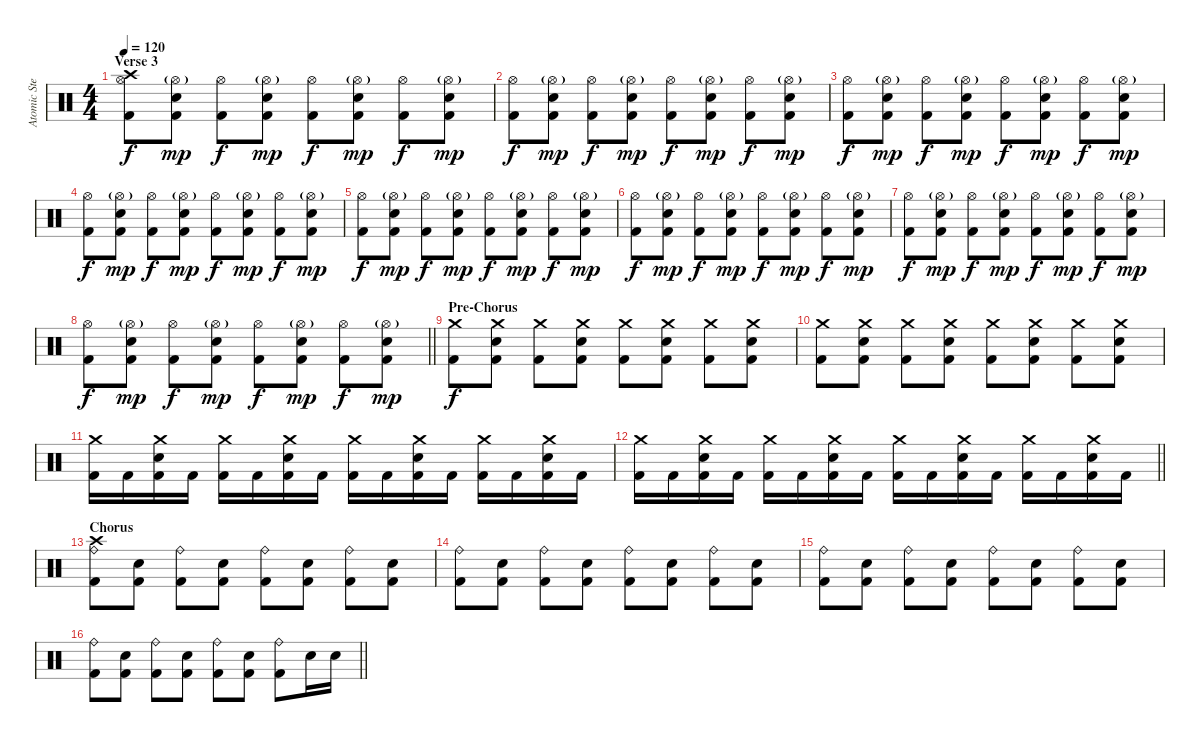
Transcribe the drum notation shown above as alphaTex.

\track ("Atomic Steif" "Atomic Ste") {instrument percussion}
\staff {score}
\articulation defaults
\ts (4 4)
\section ("" "Verse 3")
\tempo 120
\clef neutral
\ks c
("Crash high (hit)" "Hi-Hat (open)" "Kick (hit) 2").8{dy f} ("Hi-Hat (open)"{g} "Electric Snare (hit)" "Kick (hit) 2").8{dy mp} ("Hi-Hat (open)" "Kick (hit) 2").8{dy f} ("Hi-Hat (open)"{g} "Electric Snare (hit)" "Kick (hit) 2").8{dy mp} ("Hi-Hat (open)" "Kick (hit) 2").8{dy f} ("Hi-Hat (open)"{g} "Electric Snare (hit)" "Kick (hit) 2").8{dy mp} ("Hi-Hat (open)" "Kick (hit) 2").8{dy f} ("Hi-Hat (open)"{g} "Electric Snare (hit)" "Kick (hit) 2").8{dy mp} |
("Hi-Hat (open)" "Kick (hit) 2").8{dy f} ("Hi-Hat (open)"{g} "Electric Snare (hit)" "Kick (hit) 2").8{dy mp} ("Hi-Hat (open)" "Kick (hit) 2").8{dy f} ("Hi-Hat (open)"{g} "Electric Snare (hit)" "Kick (hit) 2").8{dy mp} ("Hi-Hat (open)" "Kick (hit) 2").8{dy f} ("Hi-Hat (open)"{g} "Electric Snare (hit)" "Kick (hit) 2").8{dy mp} ("Hi-Hat (open)" "Kick (hit) 2").8{dy f} ("Hi-Hat (open)"{g} "Electric Snare (hit)" "Kick (hit) 2").8{dy mp} |
("Hi-Hat (open)" "Kick (hit) 2").8{dy f} ("Hi-Hat (open)"{g} "Electric Snare (hit)" "Kick (hit) 2").8{dy mp} ("Hi-Hat (open)" "Kick (hit) 2").8{dy f} ("Hi-Hat (open)"{g} "Electric Snare (hit)" "Kick (hit) 2").8{dy mp} ("Hi-Hat (open)" "Kick (hit) 2").8{dy f} ("Hi-Hat (open)"{g} "Electric Snare (hit)" "Kick (hit) 2").8{dy mp} ("Hi-Hat (open)" "Kick (hit) 2").8{dy f} ("Hi-Hat (open)"{g} "Electric Snare (hit)" "Kick (hit) 2").8{dy mp} |
("Hi-Hat (open)" "Kick (hit) 2").8{dy f} ("Hi-Hat (open)"{g} "Electric Snare (hit)" "Kick (hit) 2").8{dy mp} ("Hi-Hat (open)" "Kick (hit) 2").8{dy f} ("Hi-Hat (open)"{g} "Electric Snare (hit)" "Kick (hit) 2").8{dy mp} ("Hi-Hat (open)" "Kick (hit) 2").8{dy f} ("Hi-Hat (open)"{g} "Electric Snare (hit)" "Kick (hit) 2").8{dy mp} ("Hi-Hat (open)" "Kick (hit) 2").8{dy f} ("Hi-Hat (open)"{g} "Electric Snare (hit)" "Kick (hit) 2").8{dy mp} |
("Hi-Hat (open)" "Kick (hit) 2").8{dy f} ("Hi-Hat (open)"{g} "Electric Snare (hit)" "Kick (hit) 2").8{dy mp} ("Hi-Hat (open)" "Kick (hit) 2").8{dy f} ("Hi-Hat (open)"{g} "Electric Snare (hit)" "Kick (hit) 2").8{dy mp} ("Hi-Hat (open)" "Kick (hit) 2").8{dy f} ("Hi-Hat (open)"{g} "Electric Snare (hit)" "Kick (hit) 2").8{dy mp} ("Hi-Hat (open)" "Kick (hit) 2").8{dy f} ("Hi-Hat (open)"{g} "Electric Snare (hit)" "Kick (hit) 2").8{dy mp} |
("Hi-Hat (open)" "Kick (hit) 2").8{dy f} ("Hi-Hat (open)"{g} "Electric Snare (hit)" "Kick (hit) 2").8{dy mp} ("Hi-Hat (open)" "Kick (hit) 2").8{dy f} ("Hi-Hat (open)"{g} "Electric Snare (hit)" "Kick (hit) 2").8{dy mp} ("Hi-Hat (open)" "Kick (hit) 2").8{dy f} ("Hi-Hat (open)"{g} "Electric Snare (hit)" "Kick (hit) 2").8{dy mp} ("Hi-Hat (open)" "Kick (hit) 2").8{dy f} ("Hi-Hat (open)"{g} "Electric Snare (hit)" "Kick (hit) 2").8{dy mp} |
("Hi-Hat (open)" "Kick (hit) 2").8{dy f} ("Hi-Hat (open)"{g} "Electric Snare (hit)" "Kick (hit) 2").8{dy mp} ("Hi-Hat (open)" "Kick (hit) 2").8{dy f} ("Hi-Hat (open)"{g} "Electric Snare (hit)" "Kick (hit) 2").8{dy mp} ("Hi-Hat (open)" "Kick (hit) 2").8{dy f} ("Hi-Hat (open)"{g} "Electric Snare (hit)" "Kick (hit) 2").8{dy mp} ("Hi-Hat (open)" "Kick (hit) 2").8{dy f} ("Hi-Hat (open)"{g} "Electric Snare (hit)" "Kick (hit) 2").8{dy mp} |
\barLineRight lightlight
("Hi-Hat (open)" "Kick (hit) 2").8{dy f} ("Hi-Hat (open)"{g} "Electric Snare (hit)" "Kick (hit) 2").8{dy mp} ("Hi-Hat (open)" "Kick (hit) 2").8{dy f} ("Hi-Hat (open)"{g} "Electric Snare (hit)" "Kick (hit) 2").8{dy mp} ("Hi-Hat (open)" "Kick (hit) 2").8{dy f} ("Hi-Hat (open)"{g} "Electric Snare (hit)" "Kick (hit) 2").8{dy mp} ("Hi-Hat (open)" "Kick (hit) 2").8{dy f} ("Hi-Hat (open)"{g} "Electric Snare (hit)" "Kick (hit) 2").8{dy mp} |
\section ("" "Pre-Chorus")
("Crash medium (hit)" "Kick (hit) 2").8{dy f} ("Crash medium (hit)" "Electric Snare (hit)" "Kick (hit) 2").8 ("Crash medium (hit)" "Kick (hit) 2").8 ("Crash medium (hit)" "Electric Snare (hit)" "Kick (hit) 2").8 ("Crash medium (hit)" "Kick (hit) 2").8 ("Crash medium (hit)" "Electric Snare (hit)" "Kick (hit) 2").8 ("Crash medium (hit)" "Kick (hit) 2").8 ("Crash medium (hit)" "Electric Snare (hit)" "Kick (hit) 2").8 |
("Crash medium (hit)" "Kick (hit) 2").8 ("Crash medium (hit)" "Electric Snare (hit)" "Kick (hit) 2").8 ("Crash medium (hit)" "Kick (hit) 2").8 ("Crash medium (hit)" "Electric Snare (hit)" "Kick (hit) 2").8 ("Crash medium (hit)" "Kick (hit) 2").8 ("Crash medium (hit)" "Electric Snare (hit)" "Kick (hit) 2").8 ("Crash medium (hit)" "Kick (hit) 2").8 ("Crash medium (hit)" "Electric Snare (hit)" "Kick (hit) 2").8 |
("Crash medium (hit)" "Kick (hit) 2").16 "Kick (hit) 2".16 ("Crash medium (hit)" "Electric Snare (hit)" "Kick (hit) 2").16 "Kick (hit) 2".16 ("Crash medium (hit)" "Kick (hit) 2").16 "Kick (hit) 2".16 ("Crash medium (hit)" "Electric Snare (hit)" "Kick (hit) 2").16 "Kick (hit) 2".16 ("Crash medium (hit)" "Kick (hit) 2").16 "Kick (hit) 2".16 ("Crash medium (hit)" "Electric Snare (hit)" "Kick (hit) 2").16 "Kick (hit) 2".16 ("Crash medium (hit)" "Kick (hit) 2").16 "Kick (hit) 2".16 ("Crash medium (hit)" "Electric Snare (hit)" "Kick (hit) 2").16 "Kick (hit) 2".16 |
\barLineRight lightlight
("Crash medium (hit)" "Kick (hit) 2").16 "Kick (hit) 2".16 ("Crash medium (hit)" "Electric Snare (hit)" "Kick (hit) 2").16 "Kick (hit) 2".16 ("Crash medium (hit)" "Kick (hit) 2").16 "Kick (hit) 2".16 ("Crash medium (hit)" "Electric Snare (hit)" "Kick (hit) 2").16 "Kick (hit) 2".16 ("Crash medium (hit)" "Kick (hit) 2").16 "Kick (hit) 2".16 ("Crash medium (hit)" "Electric Snare (hit)" "Kick (hit) 2").16 "Kick (hit) 2".16 ("Crash medium (hit)" "Kick (hit) 2").16 "Kick (hit) 2".16 ("Crash medium (hit)" "Electric Snare (hit)" "Kick (hit) 2").16 "Kick (hit) 2".16 |
\section ("" "Chorus")
("Crash high (hit)" "Ride (bell)" "Kick (hit) 2").8 ("Electric Snare (hit)" "Kick (hit) 2").8 ("Ride (bell)" "Kick (hit) 2").8 ("Electric Snare (hit)" "Kick (hit) 2").8 ("Ride (bell)" "Kick (hit) 2").8 ("Electric Snare (hit)" "Kick (hit) 2").8 ("Ride (bell)" "Kick (hit) 2").8 ("Electric Snare (hit)" "Kick (hit) 2").8 |
("Ride (bell)" "Kick (hit) 2").8 ("Electric Snare (hit)" "Kick (hit) 2").8 ("Ride (bell)" "Kick (hit) 2").8 ("Electric Snare (hit)" "Kick (hit) 2").8 ("Ride (bell)" "Kick (hit) 2").8 ("Electric Snare (hit)" "Kick (hit) 2").8 ("Ride (bell)" "Kick (hit) 2").8 ("Electric Snare (hit)" "Kick (hit) 2").8 |
("Ride (bell)" "Kick (hit) 2").8 ("Electric Snare (hit)" "Kick (hit) 2").8 ("Ride (bell)" "Kick (hit) 2").8 ("Electric Snare (hit)" "Kick (hit) 2").8 ("Ride (bell)" "Kick (hit) 2").8 ("Electric Snare (hit)" "Kick (hit) 2").8 ("Ride (bell)" "Kick (hit) 2").8 ("Electric Snare (hit)" "Kick (hit) 2").8 |
\barLineRight lightlight
("Ride (bell)" "Kick (hit) 2").8 ("Electric Snare (hit)" "Kick (hit) 2").8 ("Ride (bell)" "Kick (hit) 2").8 ("Electric Snare (hit)" "Kick (hit) 2").8 ("Ride (bell)" "Kick (hit) 2").8 ("Electric Snare (hit)" "Kick (hit) 2").8 ("Ride (bell)" "Kick (hit) 2").8 "Electric Snare (hit)".16 "Electric Snare (hit)".16
